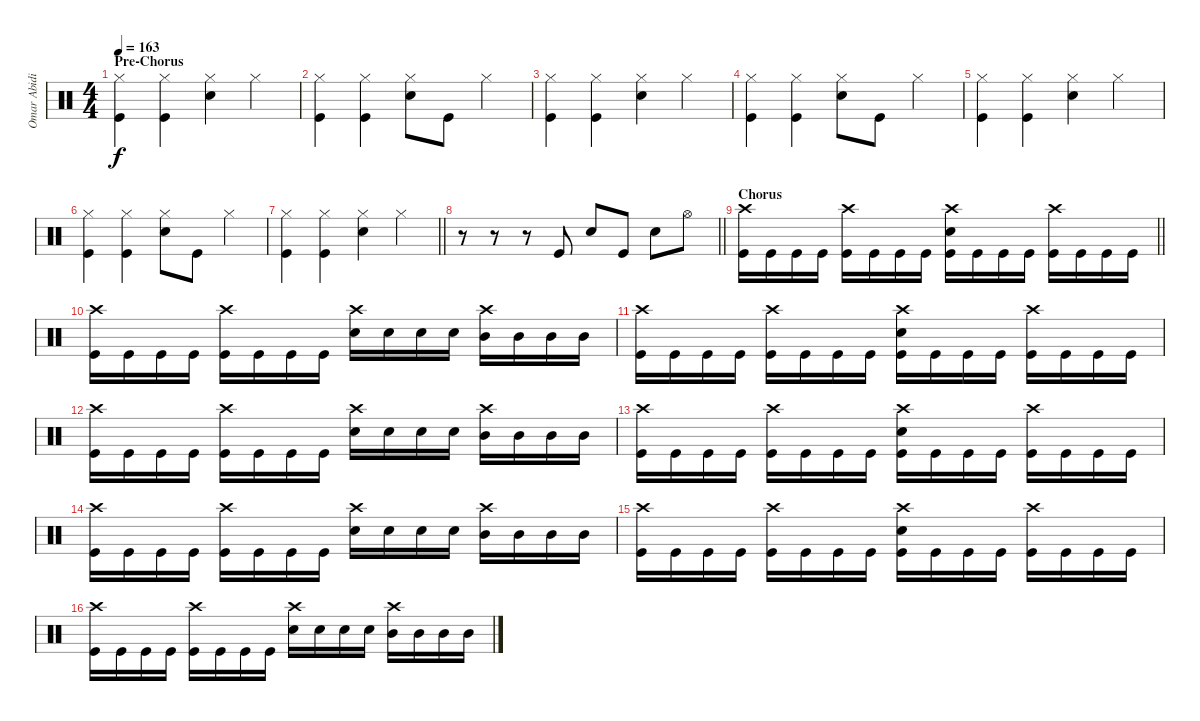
\track ("Omar Abidi" "Omar Abidi") {instrument percussion}
\staff {score}
\articulation defaults
\ts (4 4)
\section ("" "Pre-Chorus")
\tempo 163
\clef neutral
\ks c
("Hi-Hat (closed)" "Kick (hit)").4{dy f} ("Hi-Hat (closed)" "Kick (hit)").4 ("Hi-Hat (closed)" "Snare (hit) 2").4 "Hi-Hat (closed)".4 |
("Hi-Hat (closed)" "Kick (hit)").4 ("Hi-Hat (closed)" "Kick (hit)").4 ("Hi-Hat (closed)" "Snare (hit) 2").8 "Kick (hit)".8 "Hi-Hat (closed)".4 |
("Hi-Hat (closed)" "Kick (hit)").4 ("Hi-Hat (closed)" "Kick (hit)").4 ("Hi-Hat (closed)" "Snare (hit) 2").4 "Hi-Hat (closed)".4 |
("Hi-Hat (closed)" "Kick (hit)").4 ("Hi-Hat (closed)" "Kick (hit)").4 ("Hi-Hat (closed)" "Snare (hit) 2").8 "Kick (hit)".8 "Hi-Hat (closed)".4 |
("Hi-Hat (closed)" "Kick (hit)").4 ("Hi-Hat (closed)" "Kick (hit)").4 ("Hi-Hat (closed)" "Snare (hit) 2").4 "Hi-Hat (closed)".4 |
("Hi-Hat (closed)" "Kick (hit)").4 ("Hi-Hat (closed)" "Kick (hit)").4 ("Hi-Hat (closed)" "Snare (hit) 2").8 "Kick (hit)".8 "Hi-Hat (closed)".4 |
\barLineRight lightlight
("Hi-Hat (closed)" "Kick (hit)").4 ("Hi-Hat (closed)" "Kick (hit)").4 ("Hi-Hat (closed)" "Snare (hit) 2").4 "Hi-Hat (closed)".4 |
\section ("" " ")
\barLineRight lightlight
r.8 r.8 r.8 "Kick (hit)".8 "Snare (hit) 2".8 "Kick (hit)".8 "Snare (hit) 2".8 "Hi-Hat (open)".8 |
\section ("" "Chorus")
\barLineRight lightlight
("Crash high (hit)" "Kick (hit)").16 "Kick (hit)".16 "Kick (hit)".16 "Kick (hit)".16 ("Crash high (hit)" "Kick (hit)").16 "Kick (hit)".16 "Kick (hit)".16 "Kick (hit)".16 ("Crash high (hit)" "Snare (hit) 2" "Kick (hit)").16 "Kick (hit)".16 "Kick (hit)".16 "Kick (hit)".16 ("Crash high (hit)" "Kick (hit)").16 "Kick (hit)".16 "Kick (hit)".16 "Kick (hit)".16 |
\section ("" "")
("Crash high (hit)" "Kick (hit)").16 "Kick (hit)".16 "Kick (hit)".16 "Kick (hit)".16 ("Crash high (hit)" "Kick (hit)").16 "Kick (hit)".16 "Kick (hit)".16 "Kick (hit)".16 ("Crash high (hit)" "Snare (hit) 2").16 "Snare (hit) 2".16 "Snare (hit) 2".16 "Snare (hit) 2".16 ("Crash high (hit)" "Mid Tom (hit)").16 "Mid Tom (hit)".16 "Mid Tom (hit)".16 "Mid Tom (hit)".16 |
("Crash high (hit)" "Kick (hit)").16 "Kick (hit)".16 "Kick (hit)".16 "Kick (hit)".16 ("Crash high (hit)" "Kick (hit)").16 "Kick (hit)".16 "Kick (hit)".16 "Kick (hit)".16 ("Crash high (hit)" "Snare (hit) 2" "Kick (hit)").16 "Kick (hit)".16 "Kick (hit)".16 "Kick (hit)".16 ("Crash high (hit)" "Kick (hit)").16 "Kick (hit)".16 "Kick (hit)".16 "Kick (hit)".16 |
("Crash high (hit)" "Kick (hit)").16 "Kick (hit)".16 "Kick (hit)".16 "Kick (hit)".16 ("Crash high (hit)" "Kick (hit)").16 "Kick (hit)".16 "Kick (hit)".16 "Kick (hit)".16 ("Crash high (hit)" "Snare (hit) 2").16 "Snare (hit) 2".16 "Snare (hit) 2".16 "Snare (hit) 2".16 ("Crash high (hit)" "Mid Tom (hit)").16 "Mid Tom (hit)".16 "Mid Tom (hit)".16 "Mid Tom (hit)".16 |
("Crash high (hit)" "Kick (hit)").16 "Kick (hit)".16 "Kick (hit)".16 "Kick (hit)".16 ("Crash high (hit)" "Kick (hit)").16 "Kick (hit)".16 "Kick (hit)".16 "Kick (hit)".16 ("Crash high (hit)" "Snare (hit) 2" "Kick (hit)").16 "Kick (hit)".16 "Kick (hit)".16 "Kick (hit)".16 ("Crash high (hit)" "Kick (hit)").16 "Kick (hit)".16 "Kick (hit)".16 "Kick (hit)".16 |
("Crash high (hit)" "Kick (hit)").16 "Kick (hit)".16 "Kick (hit)".16 "Kick (hit)".16 ("Crash high (hit)" "Kick (hit)").16 "Kick (hit)".16 "Kick (hit)".16 "Kick (hit)".16 ("Crash high (hit)" "Snare (hit) 2").16 "Snare (hit) 2".16 "Snare (hit) 2".16 "Snare (hit) 2".16 ("Crash high (hit)" "Mid Tom (hit)").16 "Mid Tom (hit)".16 "Mid Tom (hit)".16 "Mid Tom (hit)".16 |
("Crash high (hit)" "Kick (hit)").16 "Kick (hit)".16 "Kick (hit)".16 "Kick (hit)".16 ("Crash high (hit)" "Kick (hit)").16 "Kick (hit)".16 "Kick (hit)".16 "Kick (hit)".16 ("Crash high (hit)" "Snare (hit) 2" "Kick (hit)").16 "Kick (hit)".16 "Kick (hit)".16 "Kick (hit)".16 ("Crash high (hit)" "Kick (hit)").16 "Kick (hit)".16 "Kick (hit)".16 "Kick (hit)".16 |
("Crash high (hit)" "Kick (hit)").16 "Kick (hit)".16 "Kick (hit)".16 "Kick (hit)".16 ("Crash high (hit)" "Kick (hit)").16 "Kick (hit)".16 "Kick (hit)".16 "Kick (hit)".16 ("Crash high (hit)" "Snare (hit) 2").16 "Snare (hit) 2".16 "Snare (hit) 2".16 "Snare (hit) 2".16 ("Crash high (hit)" "Mid Tom (hit)").16 "Mid Tom (hit)".16 "Mid Tom (hit)".16 "Mid Tom (hit)".16
